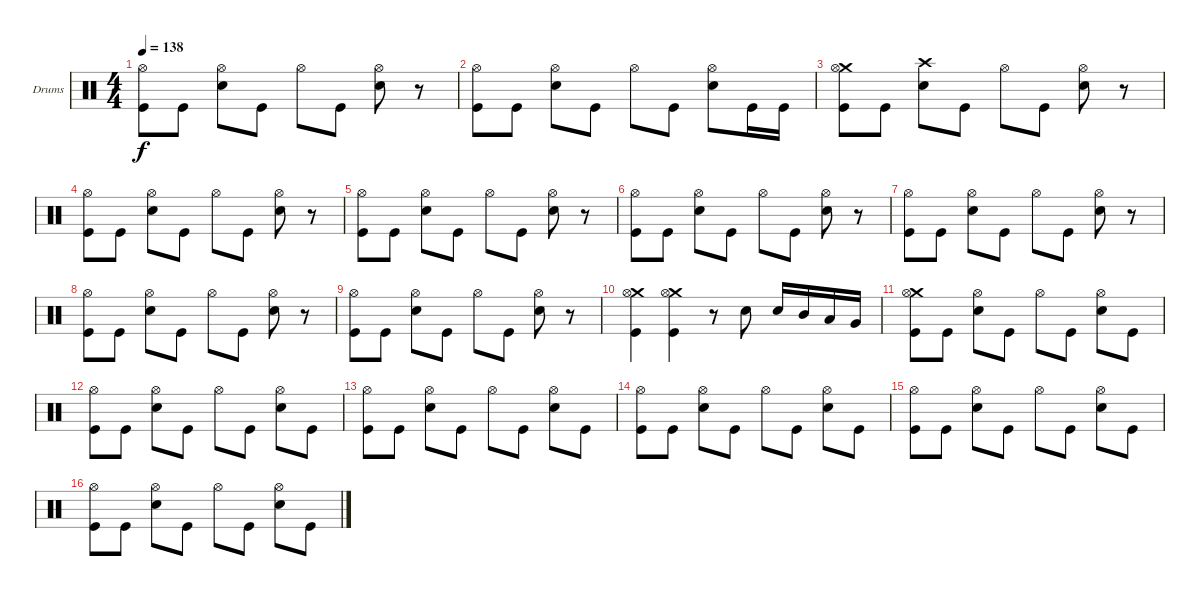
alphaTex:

\bracketExtendMode groupsimilarinstruments
\firstSystemTrackNameOrientation horizontal
\otherSystemsTrackNameOrientation horizontal
\track ("Drumkit" "Drums") {instrument percussion}
\staff {score}
\articulation defaults
\ts (4 4)
\tempo 138
\clef neutral
\ks c
("Hi-Hat (open)" "Kick (hit)").8{dy f} "Kick (hit)".8 ("Snare (hit) 2" "Hi-Hat (open)").8 "Kick (hit)".8 "Hi-Hat (open)".8 "Kick (hit)".8 ("Snare (hit) 2" "Hi-Hat (open)").8 r.8 |
("Hi-Hat (open)" "Kick (hit)").8 "Kick (hit)".8 ("Snare (hit) 2" "Hi-Hat (open)").8 "Kick (hit)".8 "Hi-Hat (open)".8 "Kick (hit)".8 ("Snare (hit) 2" "Hi-Hat (open)").8 "Kick (hit)".16 "Kick (hit)".16 |
("Crash medium (hit)" "Hi-Hat (open)" "Kick (hit)").8 "Kick (hit)".8 ("Snare (hit) 2" "Crash high (hit)").8 "Kick (hit)".8 "Hi-Hat (open)".8 "Kick (hit)".8 ("Snare (hit) 2" "Hi-Hat (open)").8 r.8 |
("Hi-Hat (open)" "Kick (hit)").8 "Kick (hit)".8 ("Snare (hit) 2" "Hi-Hat (open)").8 "Kick (hit)".8 "Hi-Hat (open)".8 "Kick (hit)".8 ("Snare (hit) 2" "Hi-Hat (open)").8 r.8 |
("Hi-Hat (open)" "Kick (hit)").8 "Kick (hit)".8 ("Snare (hit) 2" "Hi-Hat (open)").8 "Kick (hit)".8 "Hi-Hat (open)".8 "Kick (hit)".8 ("Snare (hit) 2" "Hi-Hat (open)").8 r.8 |
("Hi-Hat (open)" "Kick (hit)").8 "Kick (hit)".8 ("Snare (hit) 2" "Hi-Hat (open)").8 "Kick (hit)".8 "Hi-Hat (open)".8 "Kick (hit)".8 ("Snare (hit) 2" "Hi-Hat (open)").8 r.8 |
("Hi-Hat (open)" "Kick (hit)").8 "Kick (hit)".8 ("Snare (hit) 2" "Hi-Hat (open)").8 "Kick (hit)".8 "Hi-Hat (open)".8 "Kick (hit)".8 ("Snare (hit) 2" "Hi-Hat (open)").8 r.8 |
("Hi-Hat (open)" "Kick (hit)").8 "Kick (hit)".8 ("Snare (hit) 2" "Hi-Hat (open)").8 "Kick (hit)".8 "Hi-Hat (open)".8 "Kick (hit)".8 ("Snare (hit) 2" "Hi-Hat (open)").8 r.8 |
("Hi-Hat (open)" "Kick (hit)").8 "Kick (hit)".8 ("Snare (hit) 2" "Hi-Hat (open)").8 "Kick (hit)".8 "Hi-Hat (open)".8 "Kick (hit)".8 ("Snare (hit) 2" "Hi-Hat (open)").8 r.8 |
("Crash medium (hit)" "Hi-Hat (open)" "Kick (hit)").4 ("Crash medium (hit)" "Hi-Hat (open)" "Kick (hit)").4 r.8 "Snare (hit) 2".8 "Snare (hit) 2".16 "Mid Tom (hit)".16 "Low Tom (hit)".16 "Very Low Tom (hit)".16 |
("Crash medium (hit)" "Hi-Hat (open)" "Kick (hit)").8 "Kick (hit)".8 ("Snare (hit) 2" "Hi-Hat (open)").8 "Kick (hit)".8 "Hi-Hat (open)".8 "Kick (hit)".8 ("Snare (hit) 2" "Hi-Hat (open)").8 "Kick (hit)".8 |
("Hi-Hat (open)" "Kick (hit)").8 "Kick (hit)".8 ("Snare (hit) 2" "Hi-Hat (open)").8 "Kick (hit)".8 "Hi-Hat (open)".8 "Kick (hit)".8 ("Snare (hit) 2" "Hi-Hat (open)").8 "Kick (hit)".8 |
("Hi-Hat (open)" "Kick (hit)").8 "Kick (hit)".8 ("Snare (hit) 2" "Hi-Hat (open)").8 "Kick (hit)".8 "Hi-Hat (open)".8 "Kick (hit)".8 ("Snare (hit) 2" "Hi-Hat (open)").8 "Kick (hit)".8 |
("Hi-Hat (open)" "Kick (hit)").8 "Kick (hit)".8 ("Snare (hit) 2" "Hi-Hat (open)").8 "Kick (hit)".8 "Hi-Hat (open)".8 "Kick (hit)".8 ("Snare (hit) 2" "Hi-Hat (open)").8 "Kick (hit)".8 |
("Hi-Hat (open)" "Kick (hit)").8 "Kick (hit)".8 ("Snare (hit) 2" "Hi-Hat (open)").8 "Kick (hit)".8 "Hi-Hat (open)".8 "Kick (hit)".8 ("Snare (hit) 2" "Hi-Hat (open)").8 "Kick (hit)".8 |
("Hi-Hat (open)" "Kick (hit)").8 "Kick (hit)".8 ("Snare (hit) 2" "Hi-Hat (open)").8 "Kick (hit)".8 "Hi-Hat (open)".8 "Kick (hit)".8 ("Snare (hit) 2" "Hi-Hat (open)").8 "Kick (hit)".8
